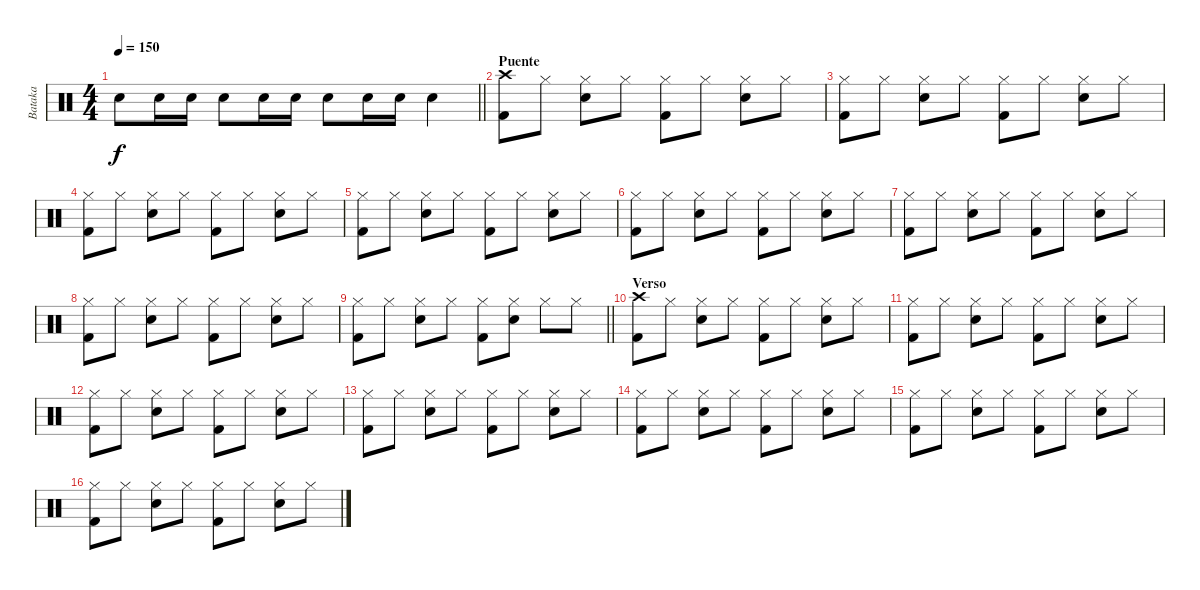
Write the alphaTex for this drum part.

\track ("Bataka" "Bataka") {instrument percussion}
\staff {score}
\articulation defaults
\ts (4 4)
\tempo 150
\clef neutral
\barLineRight lightlight
\ks c "Snare (hit) 2".8{dy f} "Snare (hit) 2".16 "Snare (hit) 2".16 "Snare (hit) 2".8 "Snare (hit) 2".16 "Snare (hit) 2".16 "Snare (hit) 2".8 "Snare (hit) 2".16 "Snare (hit) 2".16 "Snare (hit) 2".4
|
\section ("" "Puente")
("Crash high (hit)" "Kick (hit) 2").8 "Hi-Hat (closed)".8 ("Hi-Hat (closed)" "Snare (hit) 2").8 "Hi-Hat (closed)".8 ("Hi-Hat (closed)" "Kick (hit) 2").8 "Hi-Hat (closed)".8 ("Hi-Hat (closed)" "Snare (hit) 2").8 "Hi-Hat (closed)".8 |
("Hi-Hat (closed)" "Kick (hit) 2").8 "Hi-Hat (closed)".8 ("Hi-Hat (closed)" "Snare (hit) 2").8 "Hi-Hat (closed)".8 ("Hi-Hat (closed)" "Kick (hit) 2").8 "Hi-Hat (closed)".8 ("Hi-Hat (closed)" "Snare (hit) 2").8 "Hi-Hat (closed)".8 |
("Hi-Hat (closed)" "Kick (hit) 2").8 "Hi-Hat (closed)".8 ("Hi-Hat (closed)" "Snare (hit) 2").8 "Hi-Hat (closed)".8 ("Hi-Hat (closed)" "Kick (hit) 2").8 "Hi-Hat (closed)".8 ("Hi-Hat (closed)" "Snare (hit) 2").8 "Hi-Hat (closed)".8 |
("Hi-Hat (closed)" "Kick (hit) 2").8 "Hi-Hat (closed)".8 ("Hi-Hat (closed)" "Snare (hit) 2").8 "Hi-Hat (closed)".8 ("Hi-Hat (closed)" "Kick (hit) 2").8 "Hi-Hat (closed)".8 ("Hi-Hat (closed)" "Snare (hit) 2").8 "Hi-Hat (closed)".8 |
("Hi-Hat (closed)" "Kick (hit) 2").8 "Hi-Hat (closed)".8 ("Hi-Hat (closed)" "Snare (hit) 2").8 "Hi-Hat (closed)".8 ("Hi-Hat (closed)" "Kick (hit) 2").8 "Hi-Hat (closed)".8 ("Hi-Hat (closed)" "Snare (hit) 2").8 "Hi-Hat (closed)".8 |
("Hi-Hat (closed)" "Kick (hit) 2").8 "Hi-Hat (closed)".8 ("Hi-Hat (closed)" "Snare (hit) 2").8 "Hi-Hat (closed)".8 ("Hi-Hat (closed)" "Kick (hit) 2").8 "Hi-Hat (closed)".8 ("Hi-Hat (closed)" "Snare (hit) 2").8 "Hi-Hat (closed)".8 |
("Hi-Hat (closed)" "Kick (hit) 2").8 "Hi-Hat (closed)".8 ("Hi-Hat (closed)" "Snare (hit) 2").8 "Hi-Hat (closed)".8 ("Hi-Hat (closed)" "Kick (hit) 2").8 "Hi-Hat (closed)".8 ("Hi-Hat (closed)" "Snare (hit) 2").8 "Hi-Hat (closed)".8 |
\barLineRight lightlight
("Hi-Hat (closed)" "Kick (hit) 2").8 "Hi-Hat (closed)".8 ("Hi-Hat (closed)" "Snare (hit) 2").8 "Hi-Hat (closed)".8 ("Hi-Hat (closed)" "Kick (hit) 2").8 ("Hi-Hat (closed)" "Snare (hit) 2").8 "Hi-Hat (closed)".8 "Hi-Hat (closed)".8 |
\section ("" "Verso")
("Crash high (hit)" "Kick (hit) 2").8 "Hi-Hat (closed)".8 ("Hi-Hat (closed)" "Snare (hit) 2").8 "Hi-Hat (closed)".8 ("Hi-Hat (closed)" "Kick (hit) 2").8 "Hi-Hat (closed)".8 ("Hi-Hat (closed)" "Snare (hit) 2").8 "Hi-Hat (closed)".8 |
("Hi-Hat (closed)" "Kick (hit) 2").8 "Hi-Hat (closed)".8 ("Hi-Hat (closed)" "Snare (hit) 2").8 "Hi-Hat (closed)".8 ("Hi-Hat (closed)" "Kick (hit) 2").8 "Hi-Hat (closed)".8 ("Hi-Hat (closed)" "Snare (hit) 2").8 "Hi-Hat (closed)".8 |
("Hi-Hat (closed)" "Kick (hit) 2").8 "Hi-Hat (closed)".8 ("Hi-Hat (closed)" "Snare (hit) 2").8 "Hi-Hat (closed)".8 ("Hi-Hat (closed)" "Kick (hit) 2").8 "Hi-Hat (closed)".8 ("Hi-Hat (closed)" "Snare (hit) 2").8 "Hi-Hat (closed)".8 |
("Hi-Hat (closed)" "Kick (hit) 2").8 "Hi-Hat (closed)".8 ("Hi-Hat (closed)" "Snare (hit) 2").8 "Hi-Hat (closed)".8 ("Hi-Hat (closed)" "Kick (hit) 2").8 "Hi-Hat (closed)".8 ("Hi-Hat (closed)" "Snare (hit) 2").8 "Hi-Hat (closed)".8 |
("Hi-Hat (closed)" "Kick (hit) 2").8 "Hi-Hat (closed)".8 ("Hi-Hat (closed)" "Snare (hit) 2").8 "Hi-Hat (closed)".8 ("Hi-Hat (closed)" "Kick (hit) 2").8 "Hi-Hat (closed)".8 ("Hi-Hat (closed)" "Snare (hit) 2").8 "Hi-Hat (closed)".8 |
("Hi-Hat (closed)" "Kick (hit) 2").8 "Hi-Hat (closed)".8 ("Hi-Hat (closed)" "Snare (hit) 2").8 "Hi-Hat (closed)".8 ("Hi-Hat (closed)" "Kick (hit) 2").8 "Hi-Hat (closed)".8 ("Hi-Hat (closed)" "Snare (hit) 2").8 "Hi-Hat (closed)".8 |
("Hi-Hat (closed)" "Kick (hit) 2").8 "Hi-Hat (closed)".8 ("Hi-Hat (closed)" "Snare (hit) 2").8 "Hi-Hat (closed)".8 ("Hi-Hat (closed)" "Kick (hit) 2").8 "Hi-Hat (closed)".8 ("Hi-Hat (closed)" "Snare (hit) 2").8 "Hi-Hat (closed)".8
